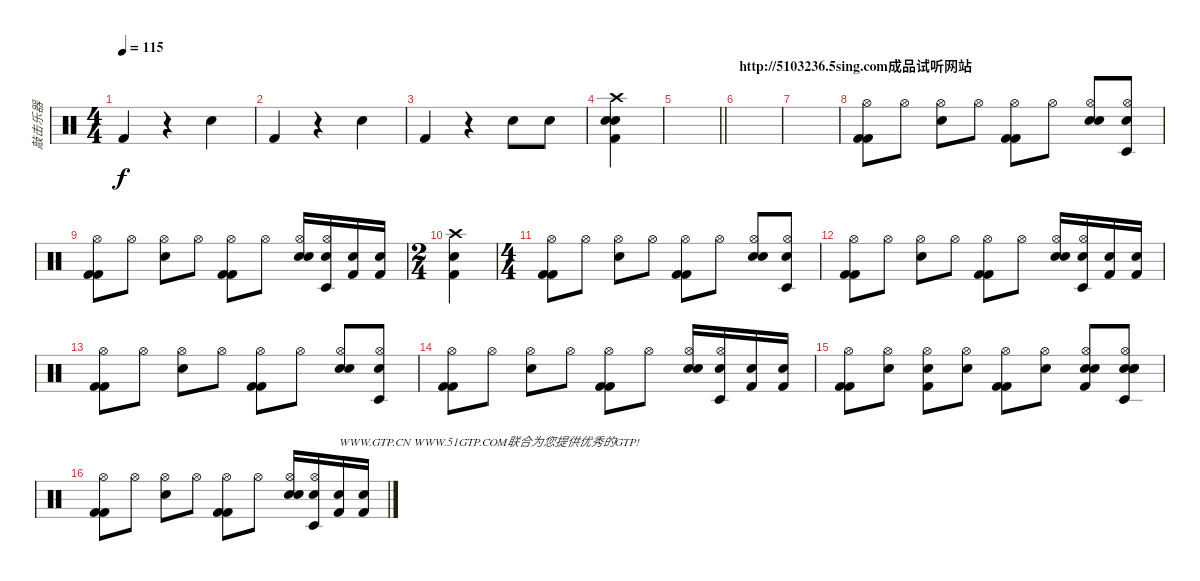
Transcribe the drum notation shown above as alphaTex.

\track ("敲击乐器" "敲击乐器") {instrument percussion}
\staff {score}
\articulation defaults
\ts (4 4)
\tempo 115
\clef neutral
\ks c "Kick (hit) 2".4{dy f}
r.4 "Snare (hit) 2".4 |
"Kick (hit) 2".4 r.4 "Snare (hit) 2".4 |
"Kick (hit) 2".4 r.4 "Snare (hit) 2".8 "Electric Snare (hit)".8 |
("Kick (hit) 2" "Snare (hit) 2" "Electric Snare (hit)" "Crash high (hit)").4 |
\barLineRight lightlight
|
\section ("" "http://5103236.5sing.com成品试听网站")
|
|
("Hi-Hat (open)" "Kick (hit) 2" "Kick (hit) 2").8 "Hi-Hat (open)".8 ("Hi-Hat (open)" "Snare (hit) 2").8 "Hi-Hat (open)".8 ("Hi-Hat (open)" "Kick (hit) 2" "Kick (hit) 2").8 "Hi-Hat (open)".8 ("Hi-Hat (open)" "Snare (hit) 2" "Electric Snare (hit)").8 ("Hi-Hat (open)" "Timbale low (hit)" "Snare (hit) 2").8 |
("Hi-Hat (open)" "Kick (hit) 2" "Kick (hit) 2").8 "Hi-Hat (open)".8 ("Hi-Hat (open)" "Snare (hit) 2").8 "Hi-Hat (open)".8 ("Hi-Hat (open)" "Kick (hit) 2" "Kick (hit) 2").8 "Hi-Hat (open)".8 ("Hi-Hat (open)" "Snare (hit) 2" "Electric Snare (hit)").16 ("Hi-Hat (open)" "Timbale low (hit)" "Snare (hit) 2").16 ("Kick (hit) 2" "Snare (hit) 2").16 ("Snare (hit) 2" "Kick (hit) 2").16 |
\ts (2 4)
("Crash high (hit)" "Kick (hit) 2" "Snare (hit) 2").4 |
\ts (4 4)
("Hi-Hat (open)" "Kick (hit) 2" "Kick (hit) 2").8 "Hi-Hat (open)".8 ("Hi-Hat (open)" "Snare (hit) 2").8 "Hi-Hat (open)".8 ("Hi-Hat (open)" "Kick (hit) 2" "Kick (hit) 2").8 "Hi-Hat (open)".8 ("Hi-Hat (open)" "Snare (hit) 2" "Electric Snare (hit)").8 ("Hi-Hat (open)" "Timbale low (hit)" "Snare (hit) 2").8 |
("Hi-Hat (open)" "Kick (hit) 2" "Kick (hit) 2").8 "Hi-Hat (open)".8 ("Hi-Hat (open)" "Snare (hit) 2").8 "Hi-Hat (open)".8 ("Hi-Hat (open)" "Kick (hit) 2" "Kick (hit) 2").8 "Hi-Hat (open)".8 ("Hi-Hat (open)" "Snare (hit) 2" "Electric Snare (hit)").16 ("Hi-Hat (open)" "Timbale low (hit)" "Snare (hit) 2").16 ("Kick (hit) 2" "Snare (hit) 2").16 ("Snare (hit) 2" "Kick (hit) 2").16 |
("Hi-Hat (open)" "Kick (hit) 2" "Kick (hit) 2").8 "Hi-Hat (open)".8 ("Hi-Hat (open)" "Snare (hit) 2").8 "Hi-Hat (open)".8 ("Hi-Hat (open)" "Kick (hit) 2" "Kick (hit) 2").8 "Hi-Hat (open)".8 ("Hi-Hat (open)" "Snare (hit) 2" "Electric Snare (hit)").8 ("Hi-Hat (open)" "Timbale low (hit)" "Snare (hit) 2").8 |
("Hi-Hat (open)" "Kick (hit) 2" "Kick (hit) 2").8 "Hi-Hat (open)".8 ("Hi-Hat (open)" "Snare (hit) 2").8 "Hi-Hat (open)".8 ("Hi-Hat (open)" "Kick (hit) 2" "Kick (hit) 2").8 "Hi-Hat (open)".8 ("Hi-Hat (open)" "Snare (hit) 2" "Electric Snare (hit)").16 ("Hi-Hat (open)" "Timbale low (hit)" "Snare (hit) 2").16 ("Kick (hit) 2" "Snare (hit) 2").16 ("Snare (hit) 2" "Kick (hit) 2").16 |
("Hi-Hat (open)" "Kick (hit) 2" "Kick (hit) 2").8 ("Hi-Hat (open)" "Snare (hit) 2").8 ("Hi-Hat (open)" "Snare (hit) 2" "Kick (hit) 2").8 ("Hi-Hat (open)" "Snare (hit) 2").8 ("Hi-Hat (open)" "Kick (hit) 2" "Kick (hit) 2").8 ("Hi-Hat (open)" "Snare (hit) 2").8 ("Hi-Hat (open)" "Snare (hit) 2" "Electric Snare (hit)" "Kick (hit) 2").8 ("Hi-Hat (open)" "Timbale low (hit)" "Snare (hit) 2" "Snare (hit) 2" "Electric Snare (hit)").8 |
("Hi-Hat (open)" "Kick (hit) 2" "Kick (hit) 2").8 "Hi-Hat (open)".8 ("Hi-Hat (open)" "Snare (hit) 2").8 "Hi-Hat (open)".8 ("Hi-Hat (open)" "Kick (hit) 2" "Kick (hit) 2").8 "Hi-Hat (open)".8 ("Hi-Hat (open)" "Snare (hit) 2" "Electric Snare (hit)").16 ("Hi-Hat (open)" "Timbale low (hit)" "Snare (hit) 2").16 ("Kick (hit) 2" "Snare (hit) 2").16{txt "WWW.GTP.CN WWW.51GTP.COM联合为您提供优秀的GTP!"} ("Snare (hit) 2" "Kick (hit) 2").16
